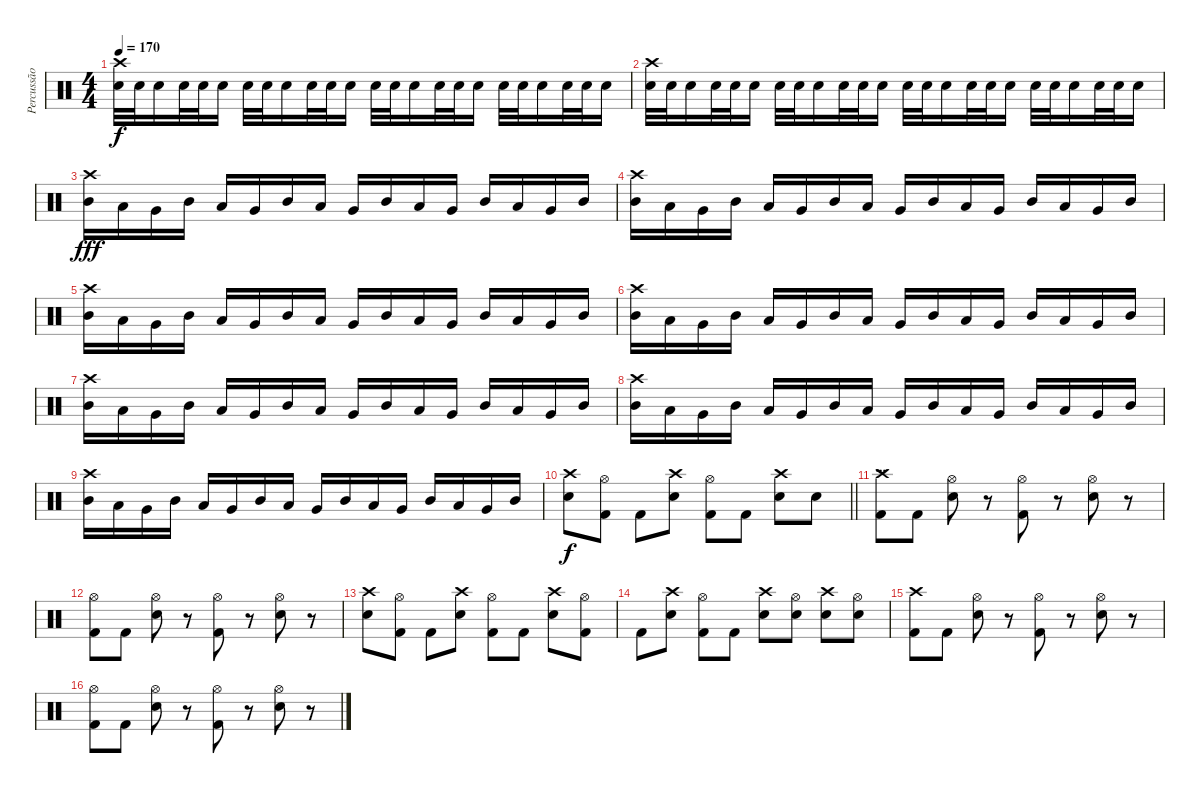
\track ("Percussão" "Percussão") {instrument percussion}
\staff {score}
\articulation defaults
\ts (4 4)
\tempo 170
\clef neutral
\ks c
("Crash high (hit)" "Snare (hit) 2").32{dy f} "Snare (hit) 2".32 "Snare (hit) 2".16 "Snare (hit) 2".32 "Snare (hit) 2".32 "Snare (hit) 2".16 "Snare (hit) 2".32 "Snare (hit) 2".32 "Snare (hit) 2".16 "Snare (hit) 2".32 "Snare (hit) 2".32 "Snare (hit) 2".16 "Snare (hit) 2".32 "Snare (hit) 2".32 "Snare (hit) 2".16 "Snare (hit) 2".32 "Snare (hit) 2".32 "Snare (hit) 2".16 "Snare (hit) 2".32 "Snare (hit) 2".32 "Snare (hit) 2".16 "Snare (hit) 2".32 "Snare (hit) 2".32 "Snare (hit) 2".16 |
("Crash high (hit)" "Snare (hit) 2").32 "Snare (hit) 2".32 "Snare (hit) 2".16 "Snare (hit) 2".32 "Snare (hit) 2".32 "Snare (hit) 2".16 "Snare (hit) 2".32 "Snare (hit) 2".32 "Snare (hit) 2".16 "Snare (hit) 2".32 "Snare (hit) 2".32 "Snare (hit) 2".16 "Snare (hit) 2".32 "Snare (hit) 2".32 "Snare (hit) 2".16 "Snare (hit) 2".32 "Snare (hit) 2".32 "Snare (hit) 2".16 "Snare (hit) 2".32 "Snare (hit) 2".32 "Snare (hit) 2".16 "Snare (hit) 2".32 "Snare (hit) 2".32 "Snare (hit) 2".16 |
("Crash high (hit)" "Mid Tom (hit)").16{dy fff} "Low Tom (hit)".16 "Very Low Tom (hit)".16 "Mid Tom (hit)".16 "Low Tom (hit)".16 "Very Low Tom (hit)".16 "Mid Tom (hit)".16 "Low Tom (hit)".16 "Very Low Tom (hit)".16 "Mid Tom (hit)".16 "Low Tom (hit)".16 "Very Low Tom (hit)".16 "Mid Tom (hit)".16 "Low Tom (hit)".16 "Very Low Tom (hit)".16 "Mid Tom (hit)".16 |
("Crash high (hit)" "Mid Tom (hit)").16 "Low Tom (hit)".16 "Very Low Tom (hit)".16 "Mid Tom (hit)".16 "Low Tom (hit)".16 "Very Low Tom (hit)".16 "Mid Tom (hit)".16 "Low Tom (hit)".16 "Very Low Tom (hit)".16 "Mid Tom (hit)".16 "Low Tom (hit)".16 "Very Low Tom (hit)".16 "Mid Tom (hit)".16 "Low Tom (hit)".16 "Very Low Tom (hit)".16 "Mid Tom (hit)".16 |
("Crash high (hit)" "Mid Tom (hit)").16 "Low Tom (hit)".16 "Very Low Tom (hit)".16 "Mid Tom (hit)".16 "Low Tom (hit)".16 "Very Low Tom (hit)".16 "Mid Tom (hit)".16 "Low Tom (hit)".16 "Very Low Tom (hit)".16 "Mid Tom (hit)".16 "Low Tom (hit)".16 "Very Low Tom (hit)".16 "Mid Tom (hit)".16 "Low Tom (hit)".16 "Very Low Tom (hit)".16 "Mid Tom (hit)".16 |
("Crash high (hit)" "Mid Tom (hit)").16 "Low Tom (hit)".16 "Very Low Tom (hit)".16 "Mid Tom (hit)".16 "Low Tom (hit)".16 "Very Low Tom (hit)".16 "Mid Tom (hit)".16 "Low Tom (hit)".16 "Very Low Tom (hit)".16 "Mid Tom (hit)".16 "Low Tom (hit)".16 "Very Low Tom (hit)".16 "Mid Tom (hit)".16 "Low Tom (hit)".16 "Very Low Tom (hit)".16 "Mid Tom (hit)".16 |
("Crash high (hit)" "Mid Tom (hit)").16 "Low Tom (hit)".16 "Very Low Tom (hit)".16 "Mid Tom (hit)".16 "Low Tom (hit)".16 "Very Low Tom (hit)".16 "Mid Tom (hit)".16 "Low Tom (hit)".16 "Very Low Tom (hit)".16 "Mid Tom (hit)".16 "Low Tom (hit)".16 "Very Low Tom (hit)".16 "Mid Tom (hit)".16 "Low Tom (hit)".16 "Very Low Tom (hit)".16 "Mid Tom (hit)".16 |
("Crash high (hit)" "Mid Tom (hit)").16 "Low Tom (hit)".16 "Very Low Tom (hit)".16 "Mid Tom (hit)".16 "Low Tom (hit)".16 "Very Low Tom (hit)".16 "Mid Tom (hit)".16 "Low Tom (hit)".16 "Very Low Tom (hit)".16 "Mid Tom (hit)".16 "Low Tom (hit)".16 "Very Low Tom (hit)".16 "Mid Tom (hit)".16 "Low Tom (hit)".16 "Very Low Tom (hit)".16 "Mid Tom (hit)".16 |
("Crash high (hit)" "Mid Tom (hit)").16 "Low Tom (hit)".16 "Very Low Tom (hit)".16 "Mid Tom (hit)".16 "Low Tom (hit)".16 "Very Low Tom (hit)".16 "Mid Tom (hit)".16 "Low Tom (hit)".16 "Very Low Tom (hit)".16 "Mid Tom (hit)".16 "Low Tom (hit)".16 "Very Low Tom (hit)".16 "Mid Tom (hit)".16 "Low Tom (hit)".16 "Very Low Tom (hit)".16 "Mid Tom (hit)".16 |
\barLineRight lightlight
("Crash high (hit)" "Snare (hit) 2").8{dy f} ("Hi-Hat (open)" "Kick (hit) 2").8 "Kick (hit) 2".8 ("Crash high (hit)" "Snare (hit) 2").8 ("Hi-Hat (open)" "Kick (hit) 2").8 "Kick (hit) 2".8 ("Crash high (hit)" "Snare (hit) 2").8 "Snare (hit) 2".8 |
\section ("" "...")
("Crash high (hit)" "Kick (hit) 2").8{volume 7} "Kick (hit) 2".8 ("Hi-Hat (open)" "Snare (hit) 2").8 r.8 ("Hi-Hat (open)" "Kick (hit) 2").8 r.8 ("Hi-Hat (open)" "Snare (hit) 2").8 r.8 |
("Hi-Hat (open)" "Kick (hit) 2").8 "Kick (hit) 2".8 ("Hi-Hat (open)" "Snare (hit) 2").8 r.8 ("Hi-Hat (open)" "Kick (hit) 2").8 r.8 ("Hi-Hat (open)" "Snare (hit) 2").8 r.8 |
("Crash high (hit)" "Snare (hit) 2").8 ("Hi-Hat (open)" "Kick (hit) 2").8 "Kick (hit) 2".8 ("Crash high (hit)" "Snare (hit) 2").8 ("Hi-Hat (open)" "Kick (hit) 2").8 "Kick (hit) 2".8 ("Crash high (hit)" "Snare (hit) 2").8 ("Hi-Hat (open)" "Kick (hit) 2").8 |
"Kick (hit) 2".8 ("Crash high (hit)" "Snare (hit) 2").8 ("Hi-Hat (open)" "Kick (hit) 2").8 "Kick (hit) 2".8 ("Crash high (hit)" "Snare (hit) 2").8 ("Hi-Hat (open)" "Snare (hit) 2").8 ("Crash high (hit)" "Snare (hit) 2").8 ("Hi-Hat (open)" "Snare (hit) 2").8 |
("Crash high (hit)" "Kick (hit) 2").8{volume 0} "Kick (hit) 2".8 ("Hi-Hat (open)" "Snare (hit) 2").8 r.8 ("Hi-Hat (open)" "Kick (hit) 2").8 r.8 ("Hi-Hat (open)" "Snare (hit) 2").8 r.8 |
("Hi-Hat (open)" "Kick (hit) 2").8 "Kick (hit) 2".8 ("Hi-Hat (open)" "Snare (hit) 2").8 r.8 ("Hi-Hat (open)" "Kick (hit) 2").8 r.8 ("Hi-Hat (open)" "Snare (hit) 2").8 r.8
